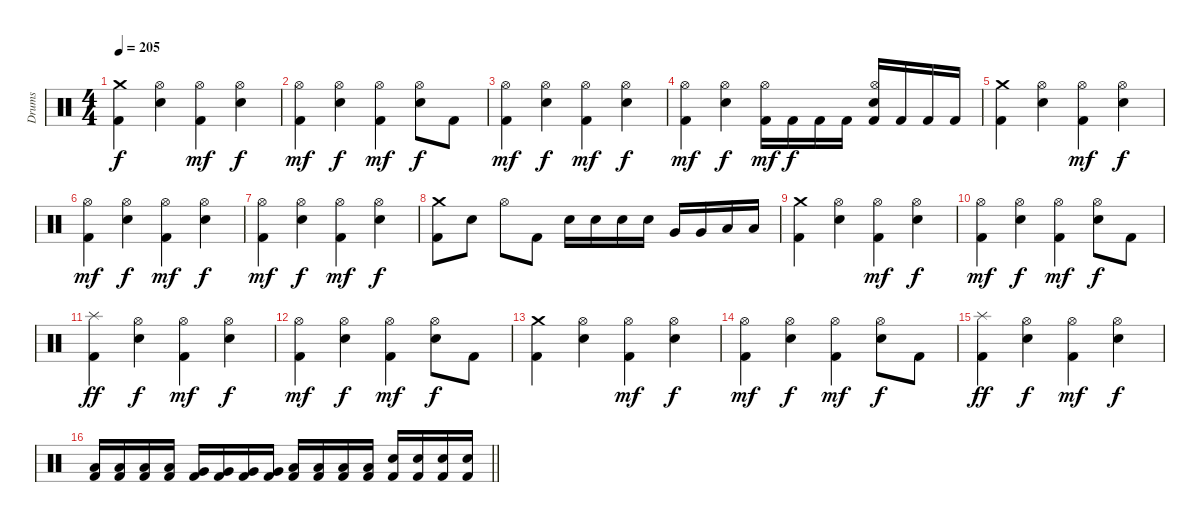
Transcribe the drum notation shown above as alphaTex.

\track ("Drums" "Drums") {instrument percussion}
\staff {score}
\articulation defaults
\ts (4 4)
\tempo 205
\clef neutral
\ks c
("Crash medium (hit)" "Kick (hit) 2").4{dy f} ("Hi-Hat (open)" "Electric Snare (hit)").4 ("Hi-Hat (open)" "Kick (hit) 2").4{dy mf} ("Hi-Hat (open)" "Electric Snare (hit)").4{dy f} |
("Hi-Hat (open)" "Kick (hit) 2").4{dy mf} ("Hi-Hat (open)" "Electric Snare (hit)").4{dy f} ("Hi-Hat (open)" "Kick (hit) 2").4{dy mf} ("Hi-Hat (open)" "Electric Snare (hit)").8{dy f} "Kick (hit) 2".8 |
("Hi-Hat (open)" "Kick (hit) 2").4{dy mf} ("Hi-Hat (open)" "Electric Snare (hit)").4{dy f} ("Hi-Hat (open)" "Kick (hit) 2").4{dy mf} ("Hi-Hat (open)" "Electric Snare (hit)").4{dy f} |
("Hi-Hat (open)" "Kick (hit) 2").4{dy mf} ("Hi-Hat (open)" "Electric Snare (hit)").4{dy f} ("Hi-Hat (open)" "Kick (hit) 2").16{dy mf} "Kick (hit) 2".16{dy f} "Kick (hit) 2".16 "Kick (hit) 2".16 ("Hi-Hat (open)" "Electric Snare (hit)" "Kick (hit) 2").16 "Kick (hit) 2".16 "Kick (hit) 2".16 "Kick (hit) 2".16 |
("Crash medium (hit)" "Kick (hit) 2").4 ("Hi-Hat (open)" "Electric Snare (hit)").4 ("Hi-Hat (open)" "Kick (hit) 2").4{dy mf} ("Hi-Hat (open)" "Electric Snare (hit)").4{dy f} |
("Hi-Hat (open)" "Kick (hit) 2").4{dy mf} ("Hi-Hat (open)" "Electric Snare (hit)").4{dy f} ("Hi-Hat (open)" "Kick (hit) 2").4{dy mf} ("Hi-Hat (open)" "Electric Snare (hit)").4{dy f} |
("Hi-Hat (open)" "Kick (hit) 2").4{dy mf} ("Hi-Hat (open)" "Electric Snare (hit)").4{dy f} ("Hi-Hat (open)" "Kick (hit) 2").4{dy mf} ("Hi-Hat (open)" "Electric Snare (hit)").4{dy f} |
("Crash medium (hit)" "Kick (hit) 2").8 "Electric Snare (hit)".8 "Hi-Hat (open)".8 "Kick (hit) 2".8 "Electric Snare (hit)".16 "Electric Snare (hit)".16 "Electric Snare (hit)".16 "Electric Snare (hit)".16 "Very Low Tom (hit)".16 "Very Low Tom (hit)".16 "Low Floor Tom (hit)".16 "Low Floor Tom (hit)".16 |
("Crash medium (hit)" "Kick (hit) 2").4 ("Hi-Hat (open)" "Electric Snare (hit)").4 ("Hi-Hat (open)" "Kick (hit) 2").4{dy mf} ("Hi-Hat (open)" "Electric Snare (hit)").4{dy f} |
("Hi-Hat (open)" "Kick (hit) 2").4{dy mf} ("Hi-Hat (open)" "Electric Snare (hit)").4{dy f} ("Hi-Hat (open)" "Kick (hit) 2").4{dy mf} ("Hi-Hat (open)" "Electric Snare (hit)").8{dy f} "Kick (hit) 2".8 |
("Splash (hit)" "Kick (hit) 2").4{dy ff} ("Hi-Hat (open)" "Electric Snare (hit)").4{dy f} ("Hi-Hat (open)" "Kick (hit) 2").4{dy mf} ("Hi-Hat (open)" "Electric Snare (hit)").4{dy f} |
("Hi-Hat (open)" "Kick (hit) 2").4{dy mf} ("Hi-Hat (open)" "Electric Snare (hit)").4{dy f} ("Hi-Hat (open)" "Kick (hit) 2").4{dy mf} ("Hi-Hat (open)" "Electric Snare (hit)").8{dy f} "Kick (hit) 2".8 |
("Crash medium (hit)" "Kick (hit) 2").4 ("Hi-Hat (open)" "Electric Snare (hit)").4 ("Hi-Hat (open)" "Kick (hit) 2").4{dy mf} ("Hi-Hat (open)" "Electric Snare (hit)").4{dy f} |
("Hi-Hat (open)" "Kick (hit) 2").4{dy mf} ("Hi-Hat (open)" "Electric Snare (hit)").4{dy f} ("Hi-Hat (open)" "Kick (hit) 2").4{dy mf} ("Hi-Hat (open)" "Electric Snare (hit)").8{dy f} "Kick (hit) 2".8 |
("Splash (hit)" "Kick (hit) 2").4{dy ff} ("Hi-Hat (open)" "Electric Snare (hit)").4{dy f} ("Hi-Hat (open)" "Kick (hit) 2").4{dy mf} ("Hi-Hat (open)" "Electric Snare (hit)").4{dy f} |
\barLineRight lightlight
("Low Tom (hit)" "Kick (hit) 2").16 ("Low Tom (hit)" "Kick (hit) 2").16 ("Low Tom (hit)" "Kick (hit) 2").16 ("Low Tom (hit)" "Kick (hit) 2").16 ("Very Low Tom (hit)" "Kick (hit) 2").16 ("Very Low Tom (hit)" "Kick (hit) 2").16 ("Very Low Tom (hit)" "Kick (hit) 2").16 ("Very Low Tom (hit)" "Kick (hit) 2").16 ("Low Floor Tom (hit)" "Kick (hit) 2").16 ("Low Floor Tom (hit)" "Kick (hit) 2").16 ("Low Floor Tom (hit)" "Kick (hit) 2").16 ("Low Floor Tom (hit)" "Kick (hit) 2").16 ("Electric Snare (hit)" "Kick (hit) 2").16 ("Electric Snare (hit)" "Kick (hit) 2").16 ("Electric Snare (hit)" "Kick (hit) 2").16 ("Electric Snare (hit)" "Kick (hit) 2").16
